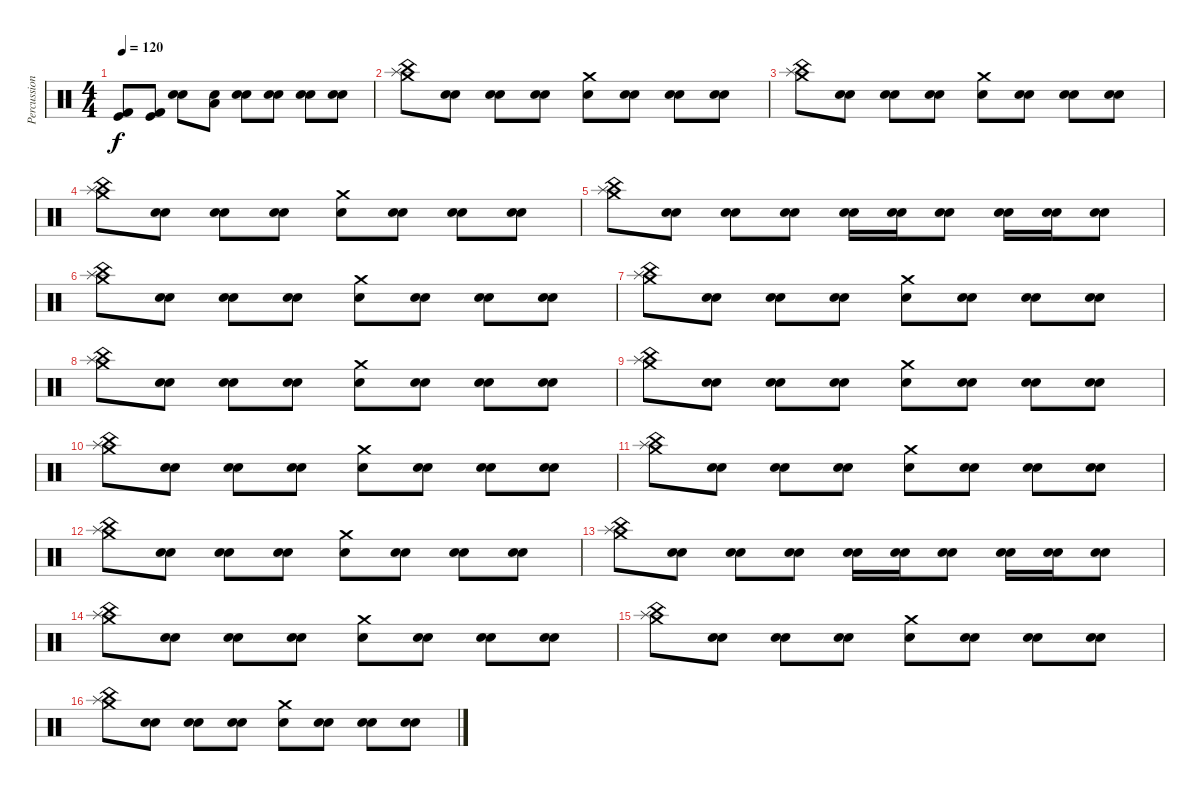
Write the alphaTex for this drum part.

\track ("Percussioni" "Percussion") {instrument percussion}
\staff {score}
\articulation defaults
\ts (4 4)
\tempo 120
\clef neutral
\ks c
("Kick (hit) 2" "Kick (hit)").8{dy f} ("Kick (hit) 2" "Kick (hit)").8 ("Snare (hit) 2" "Electric Snare (hit)").8 ("Low Floor Tom (hit)" "Electric Snare (hit)").8 ("Electric Snare (hit)" "Snare (hit) 2").8 ("Electric Snare (hit)" "Snare (hit) 2").8 ("Electric Snare (hit)" "Snare (hit) 2").8 ("Electric Snare (hit)" "Snare (hit) 2").8 |
("Crash medium (hit)" "China (hit)" "Splash (hit)").8 ("Electric Snare (hit)" "Snare (hit) 2").8 ("Electric Snare (hit)" "Snare (hit) 2").8 ("Electric Snare (hit)" "Snare (hit) 2").8 ("Crash medium (hit)" "Snare (hit) 2").8 ("Electric Snare (hit)" "Snare (hit) 2").8 ("Electric Snare (hit)" "Snare (hit) 2").8 ("Electric Snare (hit)" "Snare (hit) 2").8 |
("Crash medium (hit)" "China (hit)" "Splash (hit)").8 ("Electric Snare (hit)" "Snare (hit) 2").8 ("Electric Snare (hit)" "Snare (hit) 2").8 ("Electric Snare (hit)" "Snare (hit) 2").8 ("Crash medium (hit)" "Snare (hit) 2").8 ("Electric Snare (hit)" "Snare (hit) 2").8 ("Electric Snare (hit)" "Snare (hit) 2").8 ("Electric Snare (hit)" "Snare (hit) 2").8 |
("Crash medium (hit)" "China (hit)" "Splash (hit)").8 ("Electric Snare (hit)" "Snare (hit) 2").8 ("Electric Snare (hit)" "Snare (hit) 2").8 ("Electric Snare (hit)" "Snare (hit) 2").8 ("Crash medium (hit)" "Snare (hit) 2").8 ("Electric Snare (hit)" "Snare (hit) 2").8 ("Electric Snare (hit)" "Snare (hit) 2").8 ("Electric Snare (hit)" "Snare (hit) 2").8 |
("Crash medium (hit)" "China (hit)" "Splash (hit)").8 ("Electric Snare (hit)" "Snare (hit) 2").8 ("Electric Snare (hit)" "Snare (hit) 2").8 ("Electric Snare (hit)" "Snare (hit) 2").8 ("Electric Snare (hit)" "Snare (hit) 2").16 ("Electric Snare (hit)" "Snare (hit) 2").16 ("Electric Snare (hit)" "Snare (hit) 2").8 ("Electric Snare (hit)" "Snare (hit) 2").16 ("Electric Snare (hit)" "Snare (hit) 2").16 ("Electric Snare (hit)" "Snare (hit) 2").8 |
("Crash medium (hit)" "China (hit)" "Splash (hit)").8 ("Electric Snare (hit)" "Snare (hit) 2").8 ("Electric Snare (hit)" "Snare (hit) 2").8 ("Electric Snare (hit)" "Snare (hit) 2").8 ("Crash medium (hit)" "Snare (hit) 2").8 ("Electric Snare (hit)" "Snare (hit) 2").8 ("Electric Snare (hit)" "Snare (hit) 2").8 ("Electric Snare (hit)" "Snare (hit) 2").8 |
("Crash medium (hit)" "China (hit)" "Splash (hit)").8 ("Electric Snare (hit)" "Snare (hit) 2").8 ("Electric Snare (hit)" "Snare (hit) 2").8 ("Electric Snare (hit)" "Snare (hit) 2").8 ("Crash medium (hit)" "Snare (hit) 2").8 ("Electric Snare (hit)" "Snare (hit) 2").8 ("Electric Snare (hit)" "Snare (hit) 2").8 ("Electric Snare (hit)" "Snare (hit) 2").8 |
("Crash medium (hit)" "China (hit)" "Splash (hit)").8 ("Electric Snare (hit)" "Snare (hit) 2").8 ("Electric Snare (hit)" "Snare (hit) 2").8 ("Electric Snare (hit)" "Snare (hit) 2").8 ("Crash medium (hit)" "Snare (hit) 2").8 ("Electric Snare (hit)" "Snare (hit) 2").8 ("Electric Snare (hit)" "Snare (hit) 2").8 ("Electric Snare (hit)" "Snare (hit) 2").8 |
("Crash medium (hit)" "China (hit)" "Splash (hit)").8 ("Electric Snare (hit)" "Snare (hit) 2").8 ("Electric Snare (hit)" "Snare (hit) 2").8 ("Electric Snare (hit)" "Snare (hit) 2").8 ("Crash medium (hit)" "Snare (hit) 2").8 ("Electric Snare (hit)" "Snare (hit) 2").8 ("Electric Snare (hit)" "Snare (hit) 2").8 ("Electric Snare (hit)" "Snare (hit) 2").8 |
("Crash medium (hit)" "China (hit)" "Splash (hit)").8 ("Electric Snare (hit)" "Snare (hit) 2").8 ("Electric Snare (hit)" "Snare (hit) 2").8 ("Electric Snare (hit)" "Snare (hit) 2").8 ("Crash medium (hit)" "Snare (hit) 2").8 ("Electric Snare (hit)" "Snare (hit) 2").8 ("Electric Snare (hit)" "Snare (hit) 2").8 ("Electric Snare (hit)" "Snare (hit) 2").8 |
("Crash medium (hit)" "China (hit)" "Splash (hit)").8 ("Electric Snare (hit)" "Snare (hit) 2").8 ("Electric Snare (hit)" "Snare (hit) 2").8 ("Electric Snare (hit)" "Snare (hit) 2").8 ("Crash medium (hit)" "Snare (hit) 2").8 ("Electric Snare (hit)" "Snare (hit) 2").8 ("Electric Snare (hit)" "Snare (hit) 2").8 ("Electric Snare (hit)" "Snare (hit) 2").8 |
("Crash medium (hit)" "China (hit)" "Splash (hit)").8 ("Electric Snare (hit)" "Snare (hit) 2").8 ("Electric Snare (hit)" "Snare (hit) 2").8 ("Electric Snare (hit)" "Snare (hit) 2").8 ("Crash medium (hit)" "Snare (hit) 2").8 ("Electric Snare (hit)" "Snare (hit) 2").8 ("Electric Snare (hit)" "Snare (hit) 2").8 ("Electric Snare (hit)" "Snare (hit) 2").8 |
("Crash medium (hit)" "China (hit)" "Splash (hit)").8 ("Electric Snare (hit)" "Snare (hit) 2").8 ("Electric Snare (hit)" "Snare (hit) 2").8 ("Electric Snare (hit)" "Snare (hit) 2").8 ("Electric Snare (hit)" "Snare (hit) 2").16 ("Electric Snare (hit)" "Snare (hit) 2").16 ("Electric Snare (hit)" "Snare (hit) 2").8 ("Electric Snare (hit)" "Snare (hit) 2").16 ("Electric Snare (hit)" "Snare (hit) 2").16 ("Electric Snare (hit)" "Snare (hit) 2").8 |
("Crash medium (hit)" "China (hit)" "Splash (hit)").8 ("Electric Snare (hit)" "Snare (hit) 2").8 ("Electric Snare (hit)" "Snare (hit) 2").8 ("Electric Snare (hit)" "Snare (hit) 2").8 ("Crash medium (hit)" "Snare (hit) 2").8 ("Electric Snare (hit)" "Snare (hit) 2").8 ("Electric Snare (hit)" "Snare (hit) 2").8 ("Electric Snare (hit)" "Snare (hit) 2").8 |
("Crash medium (hit)" "China (hit)" "Splash (hit)").8 ("Electric Snare (hit)" "Snare (hit) 2").8 ("Electric Snare (hit)" "Snare (hit) 2").8 ("Electric Snare (hit)" "Snare (hit) 2").8 ("Crash medium (hit)" "Snare (hit) 2").8 ("Electric Snare (hit)" "Snare (hit) 2").8 ("Electric Snare (hit)" "Snare (hit) 2").8 ("Electric Snare (hit)" "Snare (hit) 2").8 |
("Crash medium (hit)" "China (hit)" "Splash (hit)").8 ("Electric Snare (hit)" "Snare (hit) 2").8 ("Electric Snare (hit)" "Snare (hit) 2").8 ("Electric Snare (hit)" "Snare (hit) 2").8 ("Crash medium (hit)" "Snare (hit) 2").8 ("Electric Snare (hit)" "Snare (hit) 2").8 ("Electric Snare (hit)" "Snare (hit) 2").8 ("Electric Snare (hit)" "Snare (hit) 2").8
